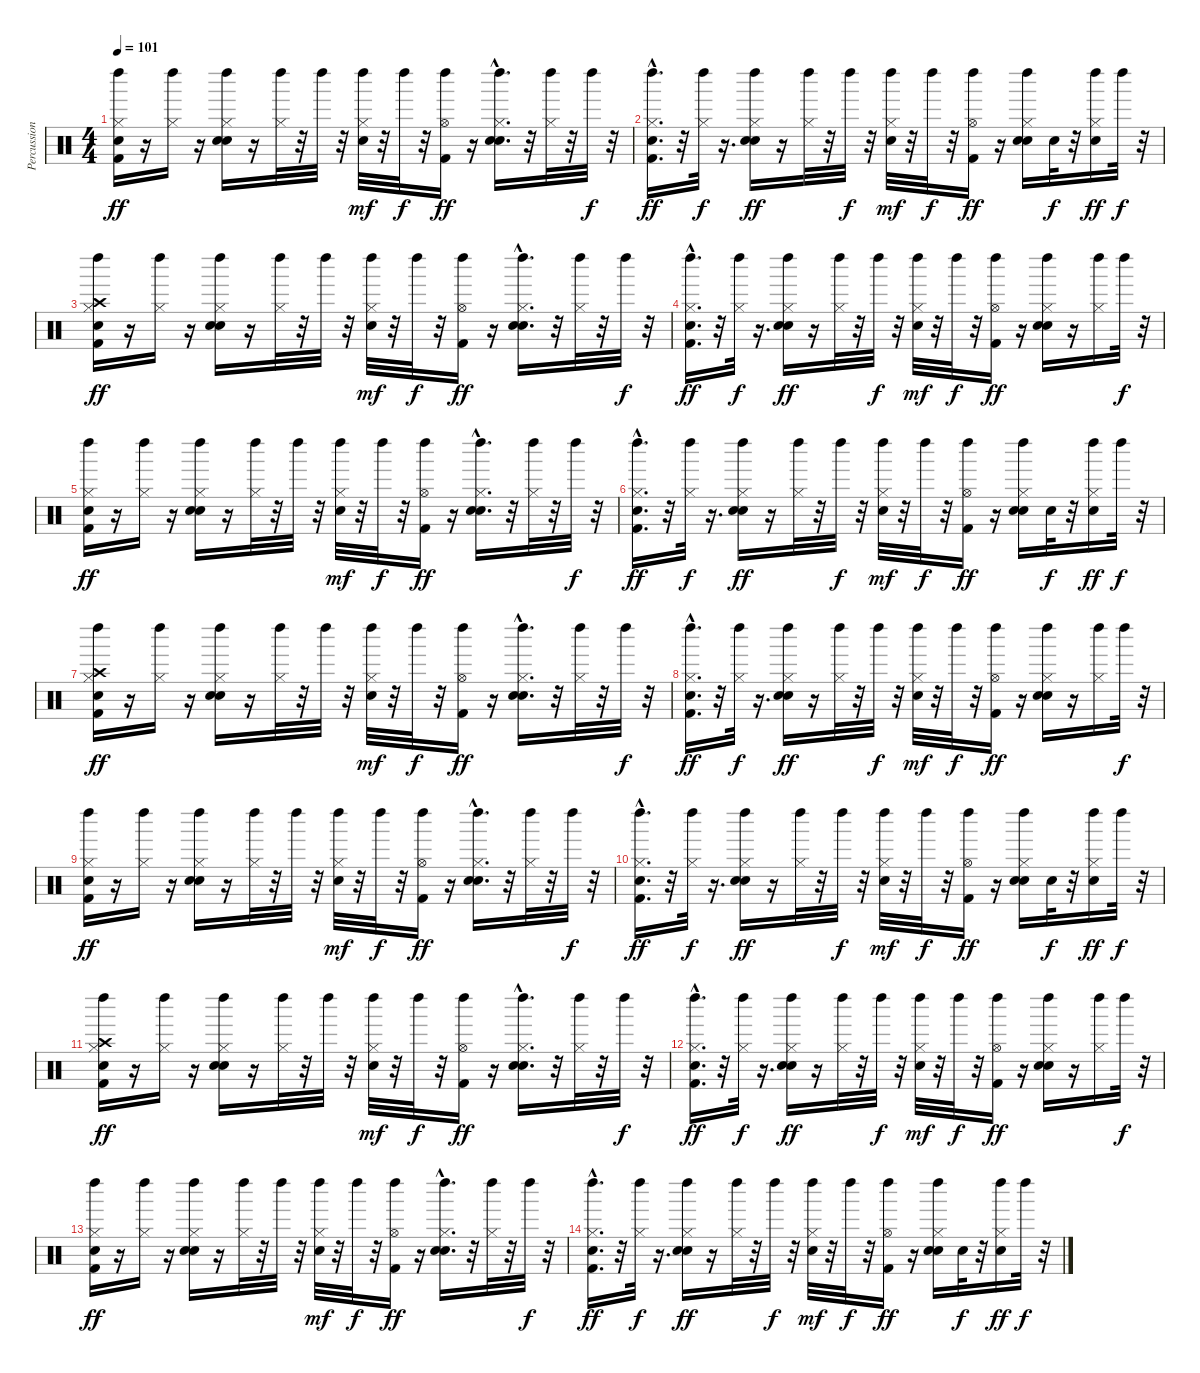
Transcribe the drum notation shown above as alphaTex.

\track ("Percussion" "Percussion") {instrument percussion}
\staff {score}
\articulation defaults
\ts (4 4)
\tempo 101
\clef neutral
\ks c
("Kick (hit) 2" "Hand Clap (hit)" "Hi-Hat (closed)" "Left Maraca (hit)").16{dy ff} r.16 ("Hi-Hat (closed)" "Left Maraca (hit)").16 r.16 ("Snare (hit) 2" "Hand Clap (hit)" "Hi-Hat (closed)" "Left Maraca (hit)").16 r.16 ("Hi-Hat (closed)" "Left Maraca (hit)").32 r.32 "Left Maraca (hit)".32 r.32 ("Hand Clap (hit)" "Hi-Hat (closed)" "Left Maraca (hit)").32{dy mf} r.32 "Left Maraca (hit)".32{dy f} r.32 ("Kick (hit) 2" "Hi-Hat (open)" "Left Maraca (hit)").16{dy ff} r.16 ("Snare (hit) 2"{hac} "Hand Clap (hit)" "Hi-Hat (closed)" "Left Maraca (hit)").16{d} r.32 ("Hi-Hat (closed)" "Left Maraca (hit)").32 r.32 "Left Maraca (hit)".32{dy f} r.32 |
("Kick (hit) 2"{hac} "Hand Clap (hit)" "Hi-Hat (closed)" "Left Maraca (hit)").16{d dy ff} r.32 ("Hi-Hat (closed)" "Left Maraca (hit)").32{dy f} r.16{d} ("Snare (hit) 2" "Hand Clap (hit)" "Hi-Hat (closed)" "Left Maraca (hit)").16{dy ff} r.16 ("Hi-Hat (closed)" "Left Maraca (hit)").32 r.32 "Left Maraca (hit)".32{dy f} r.32 ("Hand Clap (hit)" "Hi-Hat (closed)" "Left Maraca (hit)").32{dy mf} r.32 "Left Maraca (hit)".32{dy f} r.32 ("Kick (hit) 2" "Hi-Hat (open)" "Left Maraca (hit)").16{dy ff} r.16 ("Snare (hit) 2" "Hand Clap (hit)" "Hi-Hat (closed)" "Left Maraca (hit)").16 "Snare (hit) 2".32{dy f} r.32 ("Snare (hit) 2" "Hi-Hat (closed)" "Left Maraca (hit)").16{dy ff} "Left Maraca (hit)".32{dy f} r.32 |
("Kick (hit) 2" "Hand Clap (hit)" "Hi-Hat (closed)" "Crash high (hit)" "Left Maraca (hit)").16{dy ff} r.16 ("Hi-Hat (closed)" "Left Maraca (hit)").16 r.16 ("Snare (hit) 2" "Hand Clap (hit)" "Hi-Hat (closed)" "Left Maraca (hit)").16 r.16 ("Hi-Hat (closed)" "Left Maraca (hit)").32 r.32 "Left Maraca (hit)".32 r.32 ("Hand Clap (hit)" "Hi-Hat (closed)" "Left Maraca (hit)").32{dy mf} r.32 "Left Maraca (hit)".32{dy f} r.32 ("Kick (hit) 2" "Hi-Hat (open)" "Left Maraca (hit)").16{dy ff} r.16 ("Snare (hit) 2"{hac} "Hand Clap (hit)" "Hi-Hat (closed)" "Left Maraca (hit)").16{d} r.32 ("Hi-Hat (closed)" "Left Maraca (hit)").32 r.32 "Left Maraca (hit)".32{dy f} r.32 |
("Kick (hit) 2"{hac} "Hand Clap (hit)" "Hi-Hat (closed)" "Left Maraca (hit)").16{d dy ff} r.32 ("Hi-Hat (closed)" "Left Maraca (hit)").32{dy f} r.16{d} ("Snare (hit) 2" "Hand Clap (hit)" "Hi-Hat (closed)" "Left Maraca (hit)").16{dy ff} r.16 ("Hi-Hat (closed)" "Left Maraca (hit)").32 r.32 "Left Maraca (hit)".32{dy f} r.32 ("Hand Clap (hit)" "Hi-Hat (closed)" "Left Maraca (hit)").32{dy mf} r.32 "Left Maraca (hit)".32{dy f} r.32 ("Kick (hit) 2" "Hi-Hat (open)" "Left Maraca (hit)").16{dy ff} r.16 ("Snare (hit) 2" "Hand Clap (hit)" "Hi-Hat (closed)" "Left Maraca (hit)").16 r.16 ("Hi-Hat (closed)" "Left Maraca (hit)").16 "Left Maraca (hit)".32{dy f} r.32 |
("Kick (hit) 2" "Hand Clap (hit)" "Hi-Hat (closed)" "Left Maraca (hit)").16{dy ff} r.16 ("Hi-Hat (closed)" "Left Maraca (hit)").16 r.16 ("Snare (hit) 2" "Hand Clap (hit)" "Hi-Hat (closed)" "Left Maraca (hit)").16 r.16 ("Hi-Hat (closed)" "Left Maraca (hit)").32 r.32 "Left Maraca (hit)".32 r.32 ("Hand Clap (hit)" "Hi-Hat (closed)" "Left Maraca (hit)").32{dy mf} r.32 "Left Maraca (hit)".32{dy f} r.32 ("Kick (hit) 2" "Hi-Hat (open)" "Left Maraca (hit)").16{dy ff} r.16 ("Snare (hit) 2"{hac} "Hand Clap (hit)" "Hi-Hat (closed)" "Left Maraca (hit)").16{d} r.32 ("Hi-Hat (closed)" "Left Maraca (hit)").32 r.32 "Left Maraca (hit)".32{dy f} r.32 |
("Kick (hit) 2"{hac} "Hand Clap (hit)" "Hi-Hat (closed)" "Left Maraca (hit)").16{d dy ff} r.32 ("Hi-Hat (closed)" "Left Maraca (hit)").32{dy f} r.16{d} ("Snare (hit) 2" "Hand Clap (hit)" "Hi-Hat (closed)" "Left Maraca (hit)").16{dy ff} r.16 ("Hi-Hat (closed)" "Left Maraca (hit)").32 r.32 "Left Maraca (hit)".32{dy f} r.32 ("Hand Clap (hit)" "Hi-Hat (closed)" "Left Maraca (hit)").32{dy mf} r.32 "Left Maraca (hit)".32{dy f} r.32 ("Kick (hit) 2" "Hi-Hat (open)" "Left Maraca (hit)").16{dy ff} r.16 ("Snare (hit) 2" "Hand Clap (hit)" "Hi-Hat (closed)" "Left Maraca (hit)").16 "Snare (hit) 2".32{dy f} r.32 ("Snare (hit) 2" "Hi-Hat (closed)" "Left Maraca (hit)").16{dy ff} "Left Maraca (hit)".32{dy f} r.32 |
("Kick (hit) 2" "Hand Clap (hit)" "Hi-Hat (closed)" "Crash high (hit)" "Left Maraca (hit)").16{dy ff} r.16 ("Hi-Hat (closed)" "Left Maraca (hit)").16 r.16 ("Snare (hit) 2" "Hand Clap (hit)" "Hi-Hat (closed)" "Left Maraca (hit)").16 r.16 ("Hi-Hat (closed)" "Left Maraca (hit)").32 r.32 "Left Maraca (hit)".32 r.32 ("Hand Clap (hit)" "Hi-Hat (closed)" "Left Maraca (hit)").32{dy mf} r.32 "Left Maraca (hit)".32{dy f} r.32 ("Kick (hit) 2" "Hi-Hat (open)" "Left Maraca (hit)").16{dy ff} r.16 ("Snare (hit) 2"{hac} "Hand Clap (hit)" "Hi-Hat (closed)" "Left Maraca (hit)").16{d} r.32 ("Hi-Hat (closed)" "Left Maraca (hit)").32 r.32 "Left Maraca (hit)".32{dy f} r.32 |
("Kick (hit) 2"{hac} "Hand Clap (hit)" "Hi-Hat (closed)" "Left Maraca (hit)").16{d dy ff} r.32 ("Hi-Hat (closed)" "Left Maraca (hit)").32{dy f} r.16{d} ("Snare (hit) 2" "Hand Clap (hit)" "Hi-Hat (closed)" "Left Maraca (hit)").16{dy ff} r.16 ("Hi-Hat (closed)" "Left Maraca (hit)").32 r.32 "Left Maraca (hit)".32{dy f} r.32 ("Hand Clap (hit)" "Hi-Hat (closed)" "Left Maraca (hit)").32{dy mf} r.32 "Left Maraca (hit)".32{dy f} r.32 ("Kick (hit) 2" "Hi-Hat (open)" "Left Maraca (hit)").16{dy ff volume 16} r.16 ("Snare (hit) 2" "Hand Clap (hit)" "Hi-Hat (closed)" "Left Maraca (hit)").16{volume 16} r.16 ("Hi-Hat (closed)" "Left Maraca (hit)").16{volume 15} "Left Maraca (hit)".32{dy f} r.32 |
("Kick (hit) 2" "Hand Clap (hit)" "Hi-Hat (closed)" "Left Maraca (hit)").16{dy ff} r.16 ("Hi-Hat (closed)" "Left Maraca (hit)").16{volume 15} r.16 ("Snare (hit) 2" "Hand Clap (hit)" "Hi-Hat (closed)" "Left Maraca (hit)").16{volume 15} r.16 ("Hi-Hat (closed)" "Left Maraca (hit)").32{volume 14} r.32 "Left Maraca (hit)".32{volume 14} r.32 ("Hand Clap (hit)" "Hi-Hat (closed)" "Left Maraca (hit)").32{dy mf volume 14} r.32 "Left Maraca (hit)".32{dy f volume 14} r.32 ("Kick (hit) 2" "Hi-Hat (open)" "Left Maraca (hit)").16{dy ff} r.16 ("Snare (hit) 2"{hac} "Hand Clap (hit)" "Hi-Hat (closed)" "Left Maraca (hit)").16{d volume 14} r.32 ("Hi-Hat (closed)" "Left Maraca (hit)").32{volume 13} r.32 "Left Maraca (hit)".32{dy f volume 13} r.32 |
("Kick (hit) 2"{hac} "Hand Clap (hit)" "Hi-Hat (closed)" "Left Maraca (hit)").16{d dy ff} r.32 ("Hi-Hat (closed)" "Left Maraca (hit)").32{dy f volume 13} r.16{d} ("Snare (hit) 2" "Hand Clap (hit)" "Hi-Hat (closed)" "Left Maraca (hit)").16{dy ff volume 12} r.16 ("Hi-Hat (closed)" "Left Maraca (hit)").32{volume 12} r.32 "Left Maraca (hit)".32{dy f volume 12} r.32 ("Hand Clap (hit)" "Hi-Hat (closed)" "Left Maraca (hit)").32{dy mf volume 12} r.32 "Left Maraca (hit)".32{dy f volume 12} r.32 ("Kick (hit) 2" "Hi-Hat (open)" "Left Maraca (hit)").16{dy ff} r.16 ("Snare (hit) 2" "Hand Clap (hit)" "Hi-Hat (closed)" "Left Maraca (hit)").16{volume 11} "Snare (hit) 2".32{dy f volume 11} r.32 ("Snare (hit) 2" "Hi-Hat (closed)" "Left Maraca (hit)").16{dy ff} "Left Maraca (hit)".32{dy f volume 11} r.32 |
("Kick (hit) 2" "Hand Clap (hit)" "Hi-Hat (closed)" "Crash high (hit)" "Left Maraca (hit)").16{dy ff volume 11} r.16 ("Hi-Hat (closed)" "Left Maraca (hit)").16{volume 10} r.16 ("Snare (hit) 2" "Hand Clap (hit)" "Hi-Hat (closed)" "Left Maraca (hit)").16{volume 10} r.16 ("Hi-Hat (closed)" "Left Maraca (hit)").32{volume 10} r.32 "Left Maraca (hit)".32{volume 10} r.32 ("Hand Clap (hit)" "Hi-Hat (closed)" "Left Maraca (hit)").32{dy mf} r.32 "Left Maraca (hit)".32{dy f volume 9} r.32 ("Kick (hit) 2" "Hi-Hat (open)" "Left Maraca (hit)").16{dy ff} r.16 ("Snare (hit) 2"{hac} "Hand Clap (hit)" "Hi-Hat (closed)" "Left Maraca (hit)").16{d volume 9} r.32 ("Hi-Hat (closed)" "Left Maraca (hit)").32{volume 9} r.32 "Left Maraca (hit)".32{dy f} r.32 |
("Kick (hit) 2"{hac} "Hand Clap (hit)" "Hi-Hat (closed)" "Left Maraca (hit)").16{d dy ff volume 8} r.32 ("Hi-Hat (closed)" "Left Maraca (hit)").32{dy f volume 8} r.16{d} ("Snare (hit) 2" "Hand Clap (hit)" "Hi-Hat (closed)" "Left Maraca (hit)").16{dy ff volume 8} r.16 ("Hi-Hat (closed)" "Left Maraca (hit)").32{volume 7} r.32 "Left Maraca (hit)".32{dy f volume 7} r.32 ("Hand Clap (hit)" "Hi-Hat (closed)" "Left Maraca (hit)").32{dy mf volume 7} r.32 "Left Maraca (hit)".32{dy f volume 7} r.32 ("Kick (hit) 2" "Hi-Hat (open)" "Left Maraca (hit)").16{dy ff} r.16 ("Snare (hit) 2" "Hand Clap (hit)" "Hi-Hat (closed)" "Left Maraca (hit)").16{volume 6} r.16 ("Hi-Hat (closed)" "Left Maraca (hit)").16{volume 6} "Left Maraca (hit)".32{dy f volume 6} r.32 |
("Kick (hit) 2" "Hand Clap (hit)" "Hi-Hat (closed)" "Left Maraca (hit)").16{dy ff volume 6} r.16 ("Hi-Hat (closed)" "Left Maraca (hit)").16{volume 5} r.16 ("Snare (hit) 2" "Hand Clap (hit)" "Hi-Hat (closed)" "Left Maraca (hit)").16{volume 5} r.16 ("Hi-Hat (closed)" "Left Maraca (hit)").32{volume 5} r.32 "Left Maraca (hit)".32{volume 4} r.32 ("Hand Clap (hit)" "Hi-Hat (closed)" "Left Maraca (hit)").32{dy mf volume 4} r.32 "Left Maraca (hit)".32{dy f volume 4} r.32 ("Kick (hit) 2" "Hi-Hat (open)" "Left Maraca (hit)").16{dy ff volume 4} r.16 ("Snare (hit) 2"{hac} "Hand Clap (hit)" "Hi-Hat (closed)" "Left Maraca (hit)").16{d volume 3} r.32 ("Hi-Hat (closed)" "Left Maraca (hit)").32{volume 3} r.32 "Left Maraca (hit)".32{dy f volume 2} r.32 |
("Kick (hit) 2"{hac} "Hand Clap (hit)" "Hi-Hat (closed)" "Left Maraca (hit)").16{d dy ff volume 2} r.32 ("Hi-Hat (closed)" "Left Maraca (hit)").32{dy f volume 2} r.16{d} ("Snare (hit) 2" "Hand Clap (hit)" "Hi-Hat (closed)" "Left Maraca (hit)").16{dy ff volume 2} r.16 ("Hi-Hat (closed)" "Left Maraca (hit)").32{volume 1} r.32 "Left Maraca (hit)".32{dy f volume 1} r.32 ("Hand Clap (hit)" "Hi-Hat (closed)" "Left Maraca (hit)").32{dy mf} r.32 "Left Maraca (hit)".32{dy f volume 0} r.32 ("Kick (hit) 2" "Hi-Hat (open)" "Left Maraca (hit)").16{dy ff volume 0} r.16 ("Snare (hit) 2" "Hand Clap (hit)" "Hi-Hat (closed)" "Left Maraca (hit)").16{volume 0} "Snare (hit) 2".32{dy f} r.32 ("Snare (hit) 2" "Hi-Hat (closed)" "Left Maraca (hit)").16{dy ff} "Left Maraca (hit)".32{dy f} r.32
